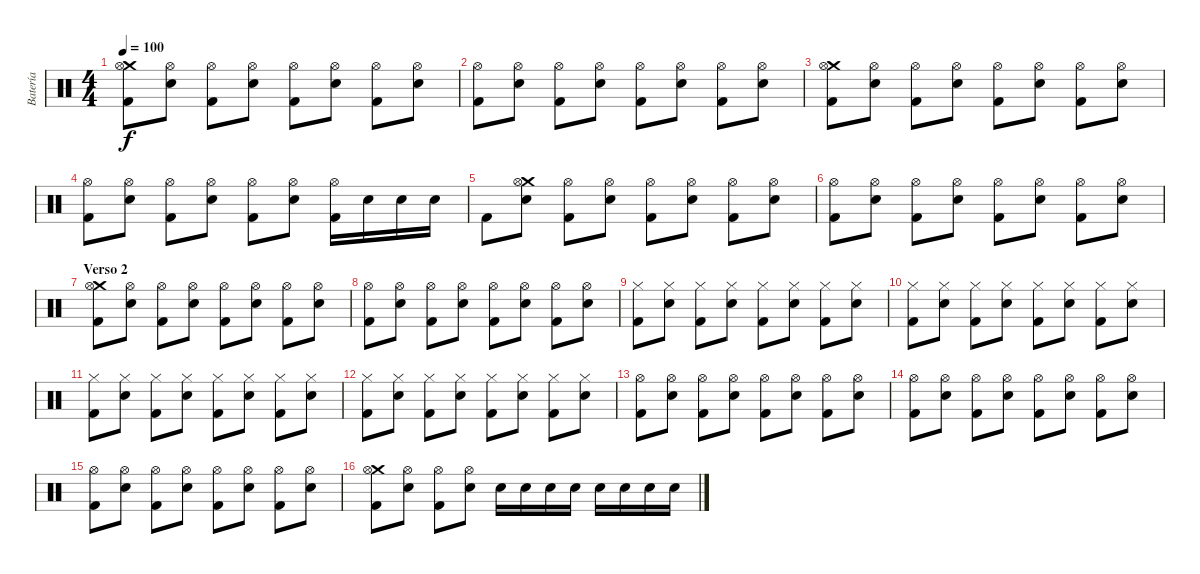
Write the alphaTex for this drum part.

\track ("Batería" "Batería") {instrument percussion}
\staff {score}
\articulation defaults
\ts (4 4)
\tempo 100
\clef neutral
\ks c
("Crash medium (hit)" "Hi-Hat (open)" "Kick (hit) 2").8{dy f} ("Hi-Hat (open)" "Snare (hit) 2").8 ("Hi-Hat (open)" "Kick (hit) 2").8 ("Hi-Hat (open)" "Snare (hit) 2").8 ("Hi-Hat (open)" "Kick (hit) 2").8 ("Hi-Hat (open)" "Snare (hit) 2").8 ("Hi-Hat (open)" "Kick (hit) 2").8 ("Hi-Hat (open)" "Snare (hit) 2").8 |
("Hi-Hat (open)" "Kick (hit) 2").8 ("Hi-Hat (open)" "Snare (hit) 2").8 ("Hi-Hat (open)" "Kick (hit) 2").8 ("Hi-Hat (open)" "Snare (hit) 2").8 ("Hi-Hat (open)" "Kick (hit) 2").8 ("Hi-Hat (open)" "Snare (hit) 2").8 ("Hi-Hat (open)" "Kick (hit) 2").8 ("Hi-Hat (open)" "Snare (hit) 2").8 |
("Crash medium (hit)" "Hi-Hat (open)" "Kick (hit) 2").8 ("Hi-Hat (open)" "Snare (hit) 2").8 ("Hi-Hat (open)" "Kick (hit) 2").8 ("Hi-Hat (open)" "Snare (hit) 2").8 ("Hi-Hat (open)" "Kick (hit) 2").8 ("Hi-Hat (open)" "Snare (hit) 2").8 ("Hi-Hat (open)" "Kick (hit) 2").8 ("Hi-Hat (open)" "Snare (hit) 2").8 |
("Hi-Hat (open)" "Kick (hit) 2").8 ("Hi-Hat (open)" "Snare (hit) 2").8 ("Hi-Hat (open)" "Kick (hit) 2").8 ("Hi-Hat (open)" "Snare (hit) 2").8 ("Hi-Hat (open)" "Kick (hit) 2").8 ("Hi-Hat (open)" "Snare (hit) 2").8 ("Hi-Hat (open)" "Kick (hit) 2").16 "Snare (hit) 2".16 "Snare (hit) 2".16 "Snare (hit) 2".16 |
"Kick (hit) 2".8 ("Crash medium (hit)" "Hi-Hat (open)" "Snare (hit) 2").8 ("Hi-Hat (open)" "Kick (hit) 2").8 ("Hi-Hat (open)" "Snare (hit) 2").8 ("Hi-Hat (open)" "Kick (hit) 2").8 ("Hi-Hat (open)" "Snare (hit) 2").8 ("Hi-Hat (open)" "Kick (hit) 2").8 ("Hi-Hat (open)" "Snare (hit) 2").8 |
("Hi-Hat (open)" "Kick (hit) 2").8 ("Hi-Hat (open)" "Snare (hit) 2").8 ("Hi-Hat (open)" "Kick (hit) 2").8 ("Hi-Hat (open)" "Snare (hit) 2").8 ("Hi-Hat (open)" "Kick (hit) 2").8 ("Hi-Hat (open)" "Snare (hit) 2").8 ("Hi-Hat (open)" "Kick (hit) 2").8 ("Hi-Hat (open)" "Snare (hit) 2").8 |
\section ("" "Verso 2")
("Crash medium (hit)" "Hi-Hat (open)" "Kick (hit) 2").8 ("Hi-Hat (open)" "Snare (hit) 2").8 ("Hi-Hat (open)" "Kick (hit) 2").8 ("Hi-Hat (open)" "Snare (hit) 2").8 ("Hi-Hat (open)" "Kick (hit) 2").8 ("Hi-Hat (open)" "Snare (hit) 2").8 ("Hi-Hat (open)" "Kick (hit) 2").8 ("Hi-Hat (open)" "Snare (hit) 2").8 |
("Hi-Hat (open)" "Kick (hit) 2").8 ("Hi-Hat (open)" "Snare (hit) 2").8 ("Hi-Hat (open)" "Kick (hit) 2").8 ("Hi-Hat (open)" "Snare (hit) 2").8 ("Hi-Hat (open)" "Kick (hit) 2").8 ("Hi-Hat (open)" "Snare (hit) 2").8 ("Hi-Hat (open)" "Kick (hit) 2").8 ("Hi-Hat (open)" "Snare (hit) 2").8 |
("Hi-Hat (closed)" "Kick (hit) 2").8 ("Hi-Hat (closed)" "Snare (hit) 2").8 ("Hi-Hat (closed)" "Kick (hit) 2").8 ("Hi-Hat (closed)" "Snare (hit) 2").8 ("Hi-Hat (closed)" "Kick (hit) 2").8 ("Hi-Hat (closed)" "Snare (hit) 2").8 ("Hi-Hat (closed)" "Kick (hit) 2").8 ("Hi-Hat (closed)" "Snare (hit) 2").8 |
("Hi-Hat (closed)" "Kick (hit) 2").8 ("Hi-Hat (closed)" "Snare (hit) 2").8 ("Hi-Hat (closed)" "Kick (hit) 2").8 ("Hi-Hat (closed)" "Snare (hit) 2").8 ("Hi-Hat (closed)" "Kick (hit) 2").8 ("Hi-Hat (closed)" "Snare (hit) 2").8 ("Hi-Hat (closed)" "Kick (hit) 2").8 ("Hi-Hat (closed)" "Snare (hit) 2").8 |
("Hi-Hat (closed)" "Kick (hit) 2").8 ("Hi-Hat (closed)" "Snare (hit) 2").8 ("Hi-Hat (closed)" "Kick (hit) 2").8 ("Hi-Hat (closed)" "Snare (hit) 2").8 ("Hi-Hat (closed)" "Kick (hit) 2").8 ("Hi-Hat (closed)" "Snare (hit) 2").8 ("Hi-Hat (closed)" "Kick (hit) 2").8 ("Hi-Hat (closed)" "Snare (hit) 2").8 |
("Hi-Hat (closed)" "Kick (hit) 2").8 ("Hi-Hat (closed)" "Snare (hit) 2").8 ("Hi-Hat (closed)" "Kick (hit) 2").8 ("Hi-Hat (closed)" "Snare (hit) 2").8 ("Hi-Hat (closed)" "Kick (hit) 2").8 ("Hi-Hat (closed)" "Snare (hit) 2").8 ("Hi-Hat (closed)" "Kick (hit) 2").8 ("Hi-Hat (closed)" "Snare (hit) 2").8 |
("Hi-Hat (open)" "Kick (hit) 2").8 ("Hi-Hat (open)" "Snare (hit) 2").8 ("Hi-Hat (open)" "Kick (hit) 2").8 ("Hi-Hat (open)" "Snare (hit) 2").8 ("Hi-Hat (open)" "Kick (hit) 2").8 ("Hi-Hat (open)" "Snare (hit) 2").8 ("Hi-Hat (open)" "Kick (hit) 2").8 ("Hi-Hat (open)" "Snare (hit) 2").8 |
("Hi-Hat (open)" "Kick (hit) 2").8 ("Hi-Hat (open)" "Snare (hit) 2").8 ("Hi-Hat (open)" "Kick (hit) 2").8 ("Hi-Hat (open)" "Snare (hit) 2").8 ("Hi-Hat (open)" "Kick (hit) 2").8 ("Hi-Hat (open)" "Snare (hit) 2").8 ("Hi-Hat (open)" "Kick (hit) 2").8 ("Hi-Hat (open)" "Snare (hit) 2").8 |
("Hi-Hat (open)" "Kick (hit) 2").8 ("Hi-Hat (open)" "Snare (hit) 2").8 ("Hi-Hat (open)" "Kick (hit) 2").8 ("Hi-Hat (open)" "Snare (hit) 2").8 ("Hi-Hat (open)" "Kick (hit) 2").8 ("Hi-Hat (open)" "Snare (hit) 2").8 ("Hi-Hat (open)" "Kick (hit) 2").8 ("Hi-Hat (open)" "Snare (hit) 2").8 |
("Crash medium (hit)" "Hi-Hat (open)" "Kick (hit) 2").8 ("Hi-Hat (open)" "Snare (hit) 2").8 ("Hi-Hat (open)" "Kick (hit) 2").8 ("Hi-Hat (open)" "Snare (hit) 2").8 "Snare (hit) 2".16 "Snare (hit) 2".16 "Snare (hit) 2".16 "Snare (hit) 2".16 "Snare (hit) 2".16 "Snare (hit) 2".16 "Snare (hit) 2".16 "Snare (hit) 2".16
